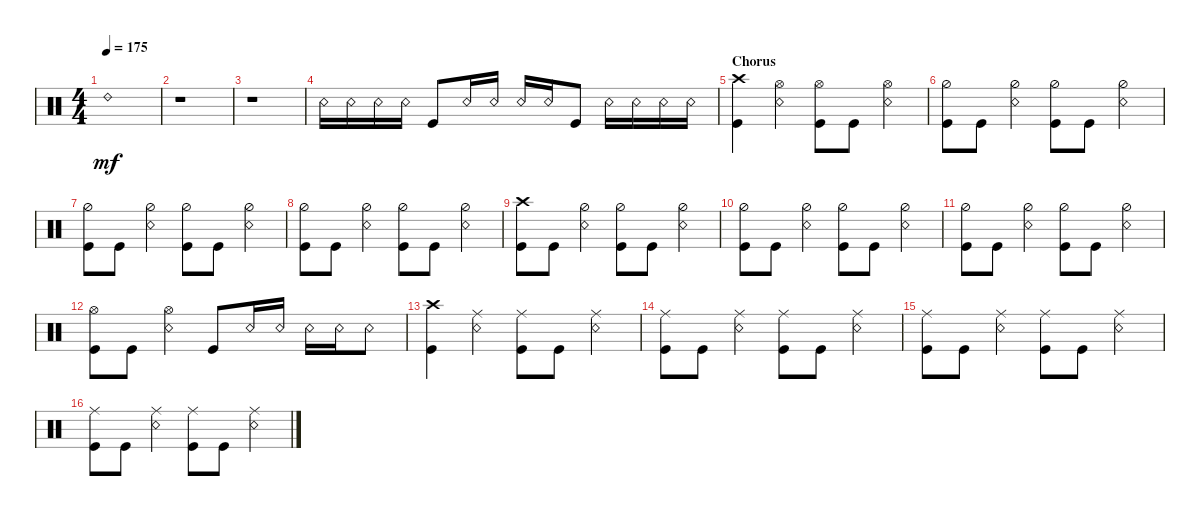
\defaultSystemsLayout 4
\bracketExtendMode groupsimilarinstruments
\singleTrackTrackNamePolicy hidden
\multiTrackTrackNamePolicy hidden
\firstSystemTrackNameOrientation horizontal
\otherSystemsTrackNameOrientation horizontal
\track ("Drumkit" "Drums") {solo instrument percussion}
\staff {score}
\articulation defaults
\ts (4 4)
\tempo 175
\clef neutral
\ks c "Ride (bell) 2".1{dy mf}
|
r.1 |
r.1 |
"Snare (rim shot)".16 "Snare (rim shot)".16 "Snare (rim shot)".16 "Snare (rim shot)".16 "Kick (hit)".8 "Snare (rim shot)".16 "Snare (rim shot)".16 "Snare (rim shot)".16 "Snare (rim shot)".16 "Kick (hit)".8 "Snare (rim shot)".16 "Snare (rim shot)".16 "Snare (rim shot)".16 "Snare (rim shot)".16 |
\section ("" "Chorus")
("Kick (hit)" "Crash high (hit)").4 ("Snare (rim shot)" "Hi-Hat (open)").4 ("Kick (hit)" "Hi-Hat (open)").8 "Kick (hit)".8 ("Snare (rim shot)" "Hi-Hat (open)").4 |
("Kick (hit)" "Hi-Hat (half)").8 "Kick (hit)".8 ("Snare (rim shot)" "Hi-Hat (half)").4 ("Kick (hit)" "Hi-Hat (half)").8 "Kick (hit)".8 ("Snare (rim shot)" "Hi-Hat (half)").4 |
("Kick (hit)" "Hi-Hat (half)").8 "Kick (hit)".8 ("Snare (rim shot)" "Hi-Hat (half)").4 ("Kick (hit)" "Hi-Hat (half)").8 "Kick (hit)".8 ("Snare (rim shot)" "Hi-Hat (half)").4 |
("Kick (hit)" "Hi-Hat (half)").8 "Kick (hit)".8 ("Snare (rim shot)" "Hi-Hat (half)").4 ("Kick (hit)" "Hi-Hat (half)").8 "Kick (hit)".8 ("Snare (rim shot)" "Hi-Hat (half)").4 |
("Kick (hit)" "Crash high (hit)").8 "Kick (hit)".8 ("Snare (rim shot)" "Hi-Hat (half)").4 ("Kick (hit)" "Hi-Hat (half)").8 "Kick (hit)".8 ("Snare (rim shot)" "Hi-Hat (half)").4 |
("Kick (hit)" "Hi-Hat (half)").8 "Kick (hit)".8 ("Snare (rim shot)" "Hi-Hat (half)").4 ("Kick (hit)" "Hi-Hat (half)").8 "Kick (hit)".8 ("Snare (rim shot)" "Hi-Hat (half)").4 |
("Kick (hit)" "Hi-Hat (half)").8 "Kick (hit)".8 ("Snare (rim shot)" "Hi-Hat (half)").4 ("Kick (hit)" "Hi-Hat (half)").8 "Kick (hit)".8 ("Snare (rim shot)" "Hi-Hat (half)").4 |
("Kick (hit)" "Hi-Hat (open)").8 "Kick (hit)".8 ("Snare (rim shot)" "Hi-Hat (open)").4 "Kick (hit)".8 "Snare (rim shot)".16 "Snare (rim shot)".16 "Snare (rim shot)".16 "Snare (rim shot)".16 "Snare (rim shot)".8 |
("Kick (hit)" "Crash high (hit)").4 ("Snare (rim shot)" "Ride (middle)").4 ("Kick (hit)" "Ride (middle)").8 "Kick (hit)".8 ("Snare (rim shot)" "Ride (middle)").4 |
("Kick (hit)" "Ride (middle)").8 "Kick (hit)".8 ("Snare (rim shot)" "Ride (middle)").4 ("Kick (hit)" "Ride (middle)").8 "Kick (hit)".8 ("Snare (rim shot)" "Ride (middle)").4 |
("Kick (hit)" "Ride (middle)").8 "Kick (hit)".8 ("Snare (rim shot)" "Ride (middle)").4 ("Kick (hit)" "Ride (middle)").8 "Kick (hit)".8 ("Snare (rim shot)" "Ride (middle)").4 |
("Kick (hit)" "Ride (middle)").8 "Kick (hit)".8 ("Snare (rim shot)" "Ride (middle)").4 ("Kick (hit)" "Ride (middle)").8 "Kick (hit)".8 ("Snare (rim shot)" "Ride (middle)").4
